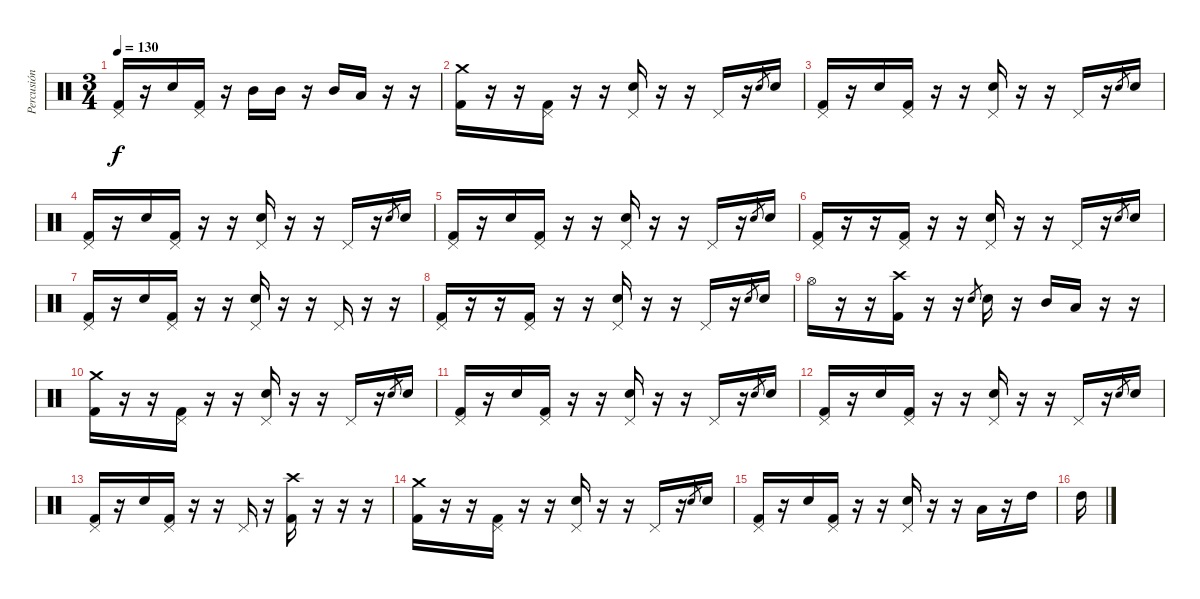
\track ("Percusión" "Percusión") {instrument percussion}
\staff {score}
\articulation defaults
\ts (3 4)
\tempo 130
\clef neutral
\ks c
("Pedal Hi-Hat (hit)" "Kick (hit) 2").16{dy f} r.16 "Electric Snare (hit)".16 ("Pedal Hi-Hat (hit)" "Kick (hit) 2").16 r.16 "Mid Tom (hit)".16 "Mid Tom (hit)".16 r.16 "Mid Tom (hit)".16 "Low Tom (hit)".16 r.16 r.16 |
("Crash medium (hit)" "Kick (hit) 2").16 r.16 r.16 ("Pedal Hi-Hat (hit)" "Kick (hit) 2").16 r.16 r.16 ("Pedal Hi-Hat (hit)" "Electric Snare (hit)").16 r.16 r.16 "Pedal Hi-Hat (hit)".16 r.16 "Electric Snare (hit)".8{gr} "Electric Snare (hit)".16 |
("Pedal Hi-Hat (hit)" "Kick (hit) 2").16 r.16 "Electric Snare (hit)".16 ("Pedal Hi-Hat (hit)" "Kick (hit) 2").16 r.16 r.16 ("Pedal Hi-Hat (hit)" "Electric Snare (hit)").16 r.16 r.16 "Pedal Hi-Hat (hit)".16 r.16 "Electric Snare (hit)".8{gr} "Electric Snare (hit)".16 |
("Pedal Hi-Hat (hit)" "Kick (hit) 2").16 r.16 "Electric Snare (hit)".16 ("Pedal Hi-Hat (hit)" "Kick (hit) 2").16 r.16 r.16 ("Pedal Hi-Hat (hit)" "Electric Snare (hit)").16 r.16 r.16 "Pedal Hi-Hat (hit)".16 r.16 "Electric Snare (hit)".8{gr} "Electric Snare (hit)".16 |
("Pedal Hi-Hat (hit)" "Kick (hit) 2").16 r.16 "Electric Snare (hit)".16 ("Pedal Hi-Hat (hit)" "Kick (hit) 2").16 r.16 r.16 ("Pedal Hi-Hat (hit)" "Electric Snare (hit)").16 r.16 r.16 "Pedal Hi-Hat (hit)".16 r.16 "Electric Snare (hit)".8{gr} "Electric Snare (hit)".16 |
("Pedal Hi-Hat (hit)" "Kick (hit) 2").16 r.16 r.16 ("Pedal Hi-Hat (hit)" "Kick (hit) 2").16 r.16 r.16 ("Pedal Hi-Hat (hit)" "Electric Snare (hit)").16 r.16 r.16 "Pedal Hi-Hat (hit)".16 r.16 "Electric Snare (hit)".8{gr} "Electric Snare (hit)".16 |
("Pedal Hi-Hat (hit)" "Kick (hit) 2").16 r.16 "Electric Snare (hit)".16 ("Pedal Hi-Hat (hit)" "Kick (hit) 2").16 r.16 r.16 ("Pedal Hi-Hat (hit)" "Electric Snare (hit)").16 r.16 r.16 "Pedal Hi-Hat (hit)".16 r.16 r.16 |
("Pedal Hi-Hat (hit)" "Kick (hit) 2").16 r.16 r.16 ("Pedal Hi-Hat (hit)" "Kick (hit) 2").16 r.16 r.16 ("Pedal Hi-Hat (hit)" "Electric Snare (hit)").16 r.16 r.16 "Pedal Hi-Hat (hit)".16 r.16 "Electric Snare (hit)".8{gr} "Electric Snare (hit)".16 |
"Hi-Hat (open)".16 r.16 r.16 ("Crash high (hit)" "Kick (hit) 2").16 r.16 r.16 "Electric Snare (hit)".8{gr} "Electric Snare (hit)".16 r.16 "Mid Tom (hit)".16 "Low Tom (hit)".16 r.16 r.16 |
("Crash medium (hit)" "Kick (hit) 2").16 r.16 r.16 ("Pedal Hi-Hat (hit)" "Kick (hit) 2").16 r.16 r.16 ("Pedal Hi-Hat (hit)" "Electric Snare (hit)").16 r.16 r.16 "Pedal Hi-Hat (hit)".16 r.16 "Electric Snare (hit)".8{gr} "Electric Snare (hit)".16 |
("Pedal Hi-Hat (hit)" "Kick (hit) 2").16 r.16 "Electric Snare (hit)".16 ("Pedal Hi-Hat (hit)" "Kick (hit) 2").16 r.16 r.16 ("Pedal Hi-Hat (hit)" "Electric Snare (hit)").16 r.16 r.16 "Pedal Hi-Hat (hit)".16 r.16 "Electric Snare (hit)".8{gr} "Electric Snare (hit)".16 |
("Pedal Hi-Hat (hit)" "Kick (hit) 2").16 r.16 "Electric Snare (hit)".16 ("Pedal Hi-Hat (hit)" "Kick (hit) 2").16 r.16 r.16 ("Pedal Hi-Hat (hit)" "Electric Snare (hit)").16 r.16 r.16 "Pedal Hi-Hat (hit)".16 r.16 "Electric Snare (hit)".8{gr} "Electric Snare (hit)".16 |
("Pedal Hi-Hat (hit)" "Kick (hit) 2").16 r.16 "Electric Snare (hit)".16 ("Pedal Hi-Hat (hit)" "Kick (hit) 2").16 r.16 r.16 "Pedal Hi-Hat (hit)".16 r.16 ("Crash high (hit)" "Kick (hit) 2").16 r.16 r.16 r.16 |
("Crash medium (hit)" "Kick (hit) 2").16 r.16 r.16 ("Pedal Hi-Hat (hit)" "Kick (hit) 2").16 r.16 r.16 ("Pedal Hi-Hat (hit)" "Electric Snare (hit)").16 r.16 r.16 "Pedal Hi-Hat (hit)".16 r.16 "Electric Snare (hit)".8{gr} "Electric Snare (hit)".16 |
("Pedal Hi-Hat (hit)" "Kick (hit) 2").16 r.16 "Electric Snare (hit)".16 ("Pedal Hi-Hat (hit)" "Kick (hit) 2").16 r.16 r.16 ("Pedal Hi-Hat (hit)" "Electric Snare (hit)").16 r.16 r.16 "Low Tom (hit)".16 r.16 "High Tom (hit)".16 |
"High Tom (hit)".16
